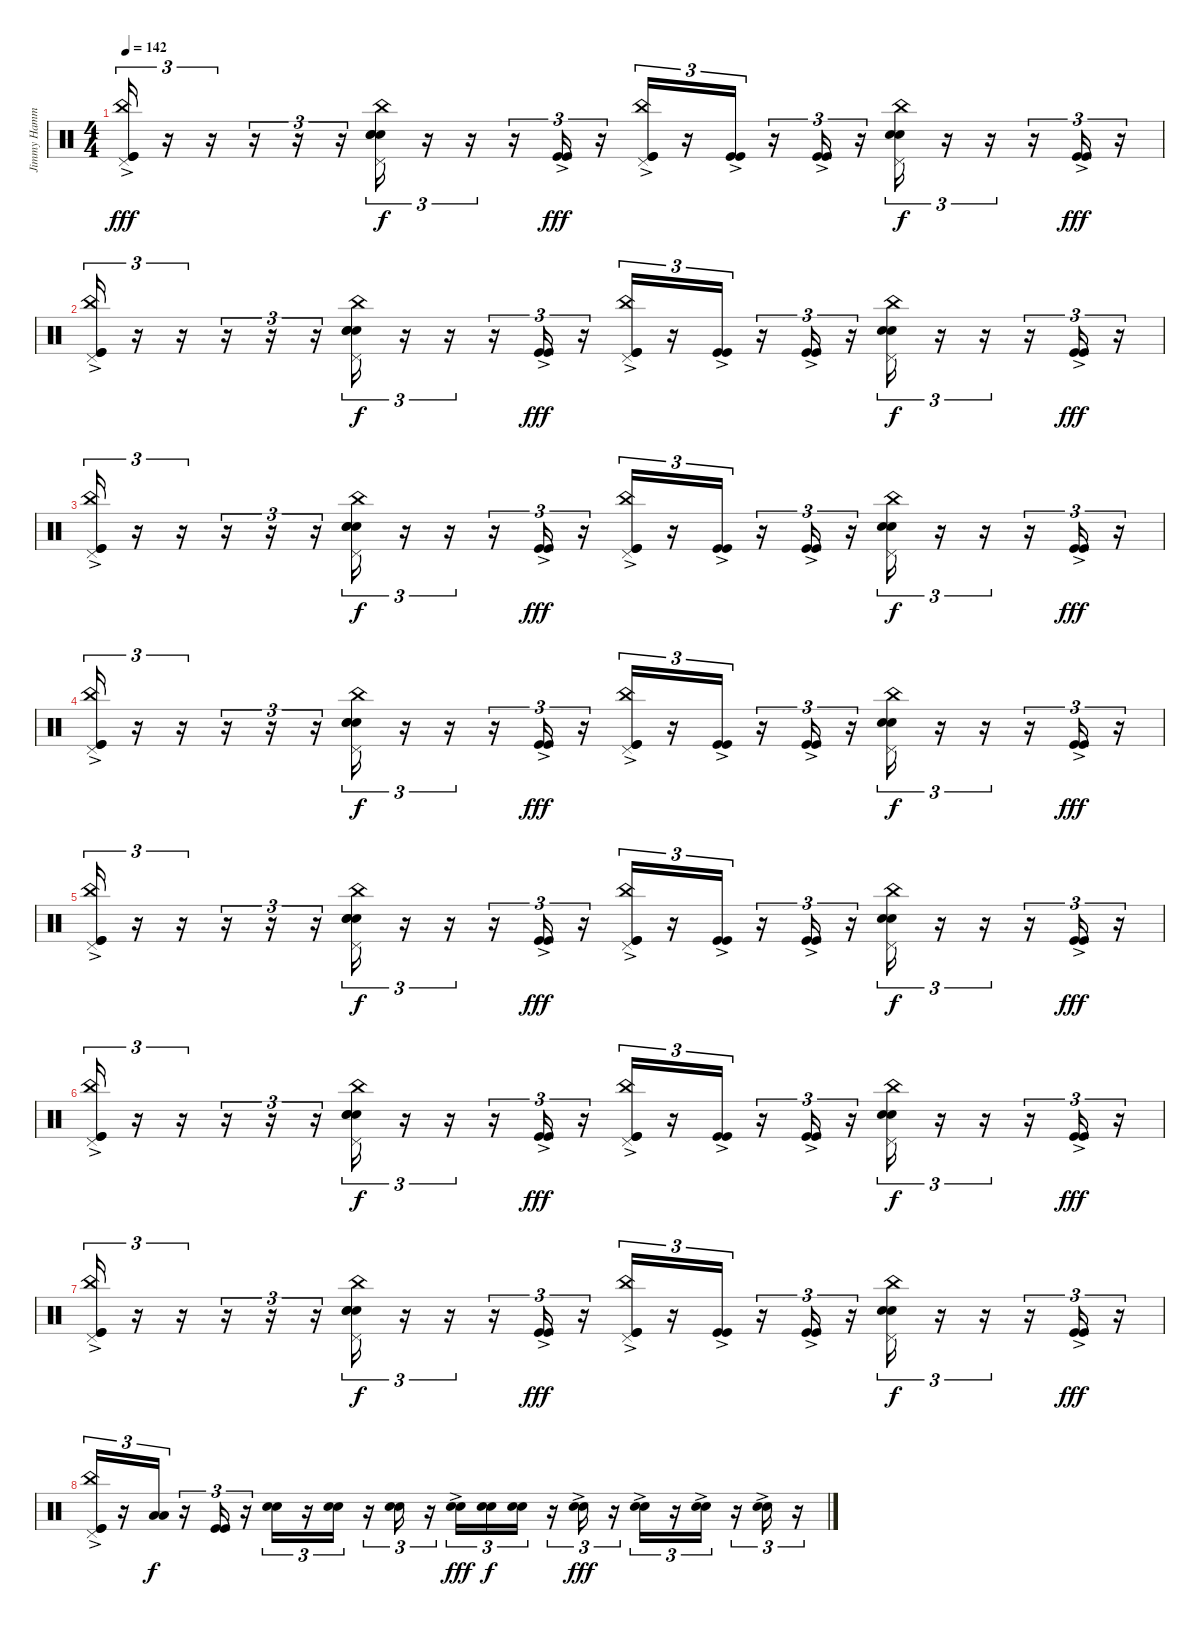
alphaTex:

\track ("Jimmy Hammer" "Jimmy Hamm") {instrument percussion}
\staff {score}
\articulation defaults
\ts (4 4)
\tempo 142
\clef neutral
\ks c
("Kick (hit)"{ac} "China (hit)" "Pedal Hi-Hat (hit)" "Kick (hit)"{ac}).16{tu (3 2) dy fff} r.16{tu (3 2)} r.16{tu (3 2)} r.16{tu (3 2)} r.16{tu (3 2)} r.16{tu (3 2)} ("China (hit)" "Electric Snare (hit)" "Electric Snare (hit)" "Electric Snare (hit)" "Pedal Hi-Hat (hit)").16{tu (3 2) dy f} r.16{tu (3 2)} r.16{tu (3 2)} r.16{tu (3 2)} ("Kick (hit)"{ac} "Kick (hit)"{ac}).16{tu (3 2) dy fff} r.16{tu (3 2)} ("China (hit)" "Kick (hit)"{ac} "Kick (hit)"{ac} "Pedal Hi-Hat (hit)").16{tu (3 2)} r.16{tu (3 2)} ("Kick (hit)"{ac} "Kick (hit)"{ac}).16{tu (3 2)} r.16{tu (3 2)} ("Kick (hit)"{ac} "Kick (hit)"{ac}).16{tu (3 2)} r.16{tu (3 2)} ("Electric Snare (hit)" "Electric Snare (hit)" "China (hit)" "Pedal Hi-Hat (hit)").16{tu (3 2) dy f} r.16{tu (3 2)} r.16{tu (3 2)} r.16{tu (3 2)} ("Kick (hit)"{ac} "Kick (hit)"{ac}).16{tu (3 2) dy fff} r.16{tu (3 2)} |
("Kick (hit)"{ac} "China (hit)" "Pedal Hi-Hat (hit)" "Kick (hit)"{ac}).16{tu (3 2)} r.16{tu (3 2)} r.16{tu (3 2)} r.16{tu (3 2)} r.16{tu (3 2)} r.16{tu (3 2)} ("China (hit)" "Electric Snare (hit)" "Electric Snare (hit)" "Electric Snare (hit)" "Pedal Hi-Hat (hit)").16{tu (3 2) dy f} r.16{tu (3 2)} r.16{tu (3 2)} r.16{tu (3 2)} ("Kick (hit)"{ac} "Kick (hit)"{ac}).16{tu (3 2) dy fff} r.16{tu (3 2)} ("China (hit)" "Kick (hit)"{ac} "Kick (hit)"{ac} "Pedal Hi-Hat (hit)").16{tu (3 2)} r.16{tu (3 2)} ("Kick (hit)"{ac} "Kick (hit)"{ac}).16{tu (3 2)} r.16{tu (3 2)} ("Kick (hit)"{ac} "Kick (hit)"{ac}).16{tu (3 2)} r.16{tu (3 2)} ("Electric Snare (hit)" "Electric Snare (hit)" "China (hit)" "Pedal Hi-Hat (hit)").16{tu (3 2) dy f} r.16{tu (3 2)} r.16{tu (3 2)} r.16{tu (3 2)} ("Kick (hit)"{ac} "Kick (hit)"{ac}).16{tu (3 2) dy fff} r.16{tu (3 2)} |
("Kick (hit)"{ac} "China (hit)" "Pedal Hi-Hat (hit)" "Kick (hit)"{ac}).16{tu (3 2)} r.16{tu (3 2)} r.16{tu (3 2)} r.16{tu (3 2)} r.16{tu (3 2)} r.16{tu (3 2)} ("China (hit)" "Electric Snare (hit)" "Electric Snare (hit)" "Electric Snare (hit)" "Pedal Hi-Hat (hit)").16{tu (3 2) dy f} r.16{tu (3 2)} r.16{tu (3 2)} r.16{tu (3 2)} ("Kick (hit)"{ac} "Kick (hit)"{ac}).16{tu (3 2) dy fff} r.16{tu (3 2)} ("China (hit)" "Kick (hit)"{ac} "Kick (hit)"{ac} "Pedal Hi-Hat (hit)").16{tu (3 2)} r.16{tu (3 2)} ("Kick (hit)"{ac} "Kick (hit)"{ac}).16{tu (3 2)} r.16{tu (3 2)} ("Kick (hit)"{ac} "Kick (hit)"{ac}).16{tu (3 2)} r.16{tu (3 2)} ("Electric Snare (hit)" "Electric Snare (hit)" "China (hit)" "Pedal Hi-Hat (hit)").16{tu (3 2) dy f} r.16{tu (3 2)} r.16{tu (3 2)} r.16{tu (3 2)} ("Kick (hit)"{ac} "Kick (hit)"{ac}).16{tu (3 2) dy fff} r.16{tu (3 2)} |
("Kick (hit)"{ac} "China (hit)" "Pedal Hi-Hat (hit)" "Kick (hit)"{ac}).16{tu (3 2)} r.16{tu (3 2)} r.16{tu (3 2)} r.16{tu (3 2)} r.16{tu (3 2)} r.16{tu (3 2)} ("China (hit)" "Electric Snare (hit)" "Electric Snare (hit)" "Electric Snare (hit)" "Pedal Hi-Hat (hit)").16{tu (3 2) dy f} r.16{tu (3 2)} r.16{tu (3 2)} r.16{tu (3 2)} ("Kick (hit)"{ac} "Kick (hit)"{ac}).16{tu (3 2) dy fff} r.16{tu (3 2)} ("China (hit)" "Kick (hit)"{ac} "Kick (hit)"{ac} "Pedal Hi-Hat (hit)").16{tu (3 2)} r.16{tu (3 2)} ("Kick (hit)"{ac} "Kick (hit)"{ac}).16{tu (3 2)} r.16{tu (3 2)} ("Kick (hit)"{ac} "Kick (hit)"{ac}).16{tu (3 2)} r.16{tu (3 2)} ("Electric Snare (hit)" "Electric Snare (hit)" "China (hit)" "Pedal Hi-Hat (hit)").16{tu (3 2) dy f} r.16{tu (3 2)} r.16{tu (3 2)} r.16{tu (3 2)} ("Kick (hit)"{ac} "Kick (hit)"{ac}).16{tu (3 2) dy fff} r.16{tu (3 2)} |
("Kick (hit)"{ac} "China (hit)" "Pedal Hi-Hat (hit)" "Kick (hit)"{ac}).16{tu (3 2)} r.16{tu (3 2)} r.16{tu (3 2)} r.16{tu (3 2)} r.16{tu (3 2)} r.16{tu (3 2)} ("China (hit)" "Electric Snare (hit)" "Electric Snare (hit)" "Electric Snare (hit)" "Pedal Hi-Hat (hit)").16{tu (3 2) dy f} r.16{tu (3 2)} r.16{tu (3 2)} r.16{tu (3 2)} ("Kick (hit)"{ac} "Kick (hit)"{ac}).16{tu (3 2) dy fff} r.16{tu (3 2)} ("China (hit)" "Kick (hit)"{ac} "Kick (hit)"{ac} "Pedal Hi-Hat (hit)").16{tu (3 2)} r.16{tu (3 2)} ("Kick (hit)"{ac} "Kick (hit)"{ac}).16{tu (3 2)} r.16{tu (3 2)} ("Kick (hit)"{ac} "Kick (hit)"{ac}).16{tu (3 2)} r.16{tu (3 2)} ("Electric Snare (hit)" "Electric Snare (hit)" "China (hit)" "Pedal Hi-Hat (hit)").16{tu (3 2) dy f} r.16{tu (3 2)} r.16{tu (3 2)} r.16{tu (3 2)} ("Kick (hit)"{ac} "Kick (hit)"{ac}).16{tu (3 2) dy fff} r.16{tu (3 2)} |
("Kick (hit)"{ac} "China (hit)" "Pedal Hi-Hat (hit)" "Kick (hit)"{ac}).16{tu (3 2)} r.16{tu (3 2)} r.16{tu (3 2)} r.16{tu (3 2)} r.16{tu (3 2)} r.16{tu (3 2)} ("China (hit)" "Electric Snare (hit)" "Electric Snare (hit)" "Electric Snare (hit)" "Pedal Hi-Hat (hit)").16{tu (3 2) dy f} r.16{tu (3 2)} r.16{tu (3 2)} r.16{tu (3 2)} ("Kick (hit)"{ac} "Kick (hit)"{ac}).16{tu (3 2) dy fff} r.16{tu (3 2)} ("China (hit)" "Kick (hit)"{ac} "Kick (hit)"{ac} "Pedal Hi-Hat (hit)").16{tu (3 2)} r.16{tu (3 2)} ("Kick (hit)"{ac} "Kick (hit)"{ac}).16{tu (3 2)} r.16{tu (3 2)} ("Kick (hit)"{ac} "Kick (hit)"{ac}).16{tu (3 2)} r.16{tu (3 2)} ("Electric Snare (hit)" "Electric Snare (hit)" "China (hit)" "Pedal Hi-Hat (hit)").16{tu (3 2) dy f} r.16{tu (3 2)} r.16{tu (3 2)} r.16{tu (3 2)} ("Kick (hit)"{ac} "Kick (hit)"{ac}).16{tu (3 2) dy fff} r.16{tu (3 2)} |
("Kick (hit)"{ac} "China (hit)" "Pedal Hi-Hat (hit)" "Kick (hit)"{ac}).16{tu (3 2)} r.16{tu (3 2)} r.16{tu (3 2)} r.16{tu (3 2)} r.16{tu (3 2)} r.16{tu (3 2)} ("China (hit)" "Electric Snare (hit)" "Electric Snare (hit)" "Electric Snare (hit)" "Pedal Hi-Hat (hit)").16{tu (3 2) dy f} r.16{tu (3 2)} r.16{tu (3 2)} r.16{tu (3 2)} ("Kick (hit)"{ac} "Kick (hit)"{ac}).16{tu (3 2) dy fff} r.16{tu (3 2)} ("China (hit)" "Kick (hit)"{ac} "Kick (hit)"{ac} "Pedal Hi-Hat (hit)").16{tu (3 2)} r.16{tu (3 2)} ("Kick (hit)"{ac} "Kick (hit)"{ac}).16{tu (3 2)} r.16{tu (3 2)} ("Kick (hit)"{ac} "Kick (hit)"{ac}).16{tu (3 2)} r.16{tu (3 2)} ("Electric Snare (hit)" "Electric Snare (hit)" "China (hit)" "Pedal Hi-Hat (hit)").16{tu (3 2) dy f} r.16{tu (3 2)} r.16{tu (3 2)} r.16{tu (3 2)} ("Kick (hit)"{ac} "Kick (hit)"{ac}).16{tu (3 2) dy fff} r.16{tu (3 2)} |
("Kick (hit)"{ac} "China (hit)" "Pedal Hi-Hat (hit)" "Kick (hit)"{ac}).16{tu (3 2)} r.16{tu (3 2)} ("Low Tom (hit)" "Low Tom (hit)").16{tu (3 2) dy f} r.16{tu (3 2)} ("Kick (hit)" "Kick (hit)").16{tu (3 2)} r.16{tu (3 2)} ("Electric Snare (hit)" "Electric Snare (hit)").16{tu (3 2)} r.16{tu (3 2)} ("Electric Snare (hit)" "Electric Snare (hit)").16{tu (3 2)} r.16{tu (3 2)} ("Electric Snare (hit)" "Electric Snare (hit)").16{tu (3 2)} r.16{tu (3 2)} ("Electric Snare (hit)"{ac} "Electric Snare (hit)").16{tu (3 2) dy fff} ("Electric Snare (hit)" "Electric Snare (hit)").16{tu (3 2) dy f} ("Electric Snare (hit)" "Electric Snare (hit)").16{tu (3 2)} r.16{tu (3 2)} ("Electric Snare (hit)"{ac} "Electric Snare (hit)").16{tu (3 2) dy fff} r.16{tu (3 2)} ("Electric Snare (hit)"{ac} "Electric Snare (hit)").16{tu (3 2)} r.16{tu (3 2)} ("Electric Snare (hit)"{ac} "Electric Snare (hit)"{ac}).16{tu (3 2)} r.16{tu (3 2)} ("Electric Snare (hit)"{ac} "Electric Snare (hit)"{ac}).16{tu (3 2)} r.16{tu (3 2)}
